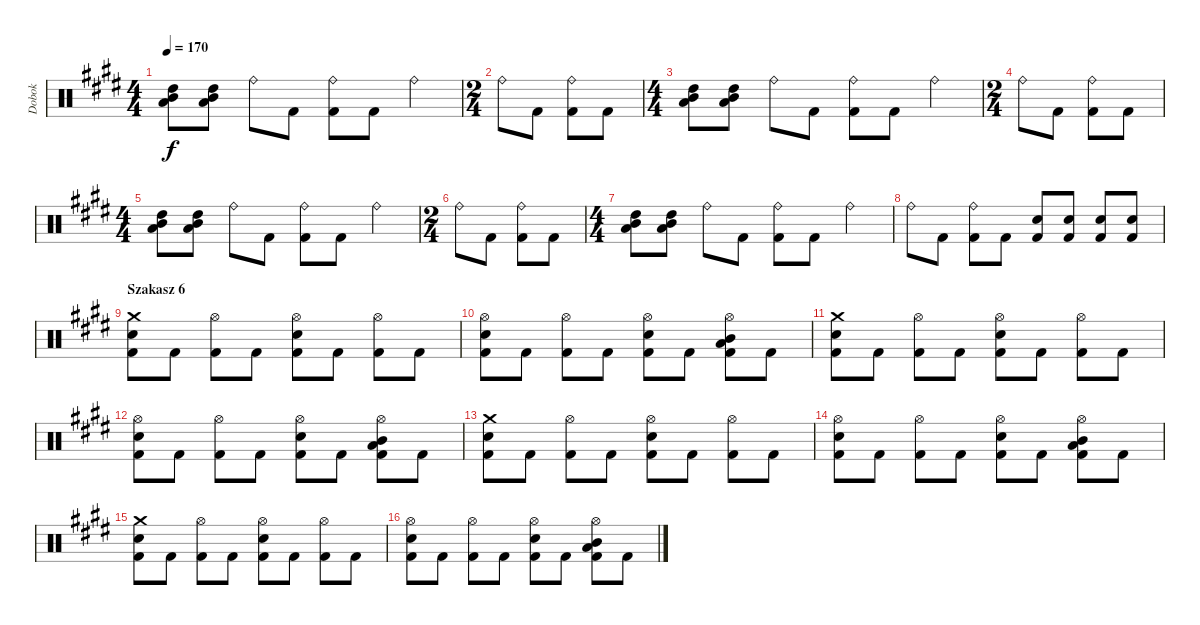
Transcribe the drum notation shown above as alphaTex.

\track ("Dobok" "Dobok") {instrument percussion}
\staff {score}
\articulation defaults
\ts (4 4)
\tempo 170
\clef neutral
\ks c#minor
("High Tom (hit)" "Mid Tom (hit)" "Low Tom (hit)").8{dy f} ("High Tom (hit)" "Mid Tom (hit)" "Low Tom (hit)").8 "Ride (bell)".8 "Kick (hit) 2".8 ("Ride (bell)" "Kick (hit) 2").8 "Kick (hit) 2".8 "Ride (bell)".4 |
\ts (2 4)
"Ride (bell)".8 "Kick (hit) 2".8 ("Ride (bell)" "Kick (hit) 2").8 "Kick (hit) 2".8 |
\ts (4 4)
("High Tom (hit)" "Mid Tom (hit)" "Low Tom (hit)").8 ("High Tom (hit)" "Mid Tom (hit)" "Low Tom (hit)").8 "Ride (bell)".8 "Kick (hit) 2".8 ("Ride (bell)" "Kick (hit) 2").8 "Kick (hit) 2".8 "Ride (bell)".4 |
\ts (2 4)
"Ride (bell)".8 "Kick (hit) 2".8 ("Ride (bell)" "Kick (hit) 2").8 "Kick (hit) 2".8 |
\ts (4 4)
("High Tom (hit)" "Mid Tom (hit)" "Low Tom (hit)").8 ("High Tom (hit)" "Mid Tom (hit)" "Low Tom (hit)").8 "Ride (bell)".8 "Kick (hit) 2".8 ("Ride (bell)" "Kick (hit) 2").8 "Kick (hit) 2".8 "Ride (bell)".4 |
\ts (2 4)
"Ride (bell)".8 "Kick (hit) 2".8 ("Ride (bell)" "Kick (hit) 2").8 "Kick (hit) 2".8 |
\ts (4 4)
("High Tom (hit)" "Mid Tom (hit)" "Low Tom (hit)").8 ("High Tom (hit)" "Mid Tom (hit)" "Low Tom (hit)").8 "Ride (bell)".8 "Kick (hit) 2".8 ("Ride (bell)" "Kick (hit) 2").8 "Kick (hit) 2".8 "Ride (bell)".4 |
"Ride (bell)".8 "Kick (hit) 2".8 ("Ride (bell)" "Kick (hit) 2").8 "Kick (hit) 2".8 ("Snare (hit) 2" "Kick (hit) 2").8 ("Snare (hit) 2" "Kick (hit) 2").8 ("Snare (hit) 2" "Kick (hit) 2").8 ("Snare (hit) 2" "Kick (hit) 2").8 |
\section ("" "Szakasz 6")
("Crash medium (hit)" "Snare (hit) 2" "Kick (hit) 2").8 "Kick (hit) 2".8 ("Hi-Hat (open)" "Kick (hit) 2").8 "Kick (hit) 2".8 ("Hi-Hat (open)" "Snare (hit) 2" "Kick (hit) 2").8 "Kick (hit) 2".8 ("Hi-Hat (open)" "Kick (hit) 2").8 "Kick (hit) 2".8 |
("Hi-Hat (open)" "Snare (hit) 2" "Kick (hit) 2").8 "Kick (hit) 2".8 ("Hi-Hat (open)" "Kick (hit) 2").8 "Kick (hit) 2".8 ("Hi-Hat (open)" "Snare (hit) 2" "Kick (hit) 2").8 "Kick (hit) 2".8 ("Hi-Hat (open)" "Low Tom (hit)" "Mid Tom (hit)" "Kick (hit) 2").8 "Kick (hit) 2".8 |
("Crash medium (hit)" "Snare (hit) 2" "Kick (hit) 2").8 "Kick (hit) 2".8 ("Hi-Hat (open)" "Kick (hit) 2").8 "Kick (hit) 2".8 ("Hi-Hat (open)" "Snare (hit) 2" "Kick (hit) 2").8 "Kick (hit) 2".8 ("Hi-Hat (open)" "Kick (hit) 2").8 "Kick (hit) 2".8 |
("Hi-Hat (open)" "Snare (hit) 2" "Kick (hit) 2").8 "Kick (hit) 2".8 ("Hi-Hat (open)" "Kick (hit) 2").8 "Kick (hit) 2".8 ("Hi-Hat (open)" "Snare (hit) 2" "Kick (hit) 2").8 "Kick (hit) 2".8 ("Hi-Hat (open)" "Low Tom (hit)" "Mid Tom (hit)" "Kick (hit) 2").8 "Kick (hit) 2".8 |
("Crash medium (hit)" "Snare (hit) 2" "Kick (hit) 2").8 "Kick (hit) 2".8 ("Hi-Hat (open)" "Kick (hit) 2").8 "Kick (hit) 2".8 ("Hi-Hat (open)" "Snare (hit) 2" "Kick (hit) 2").8 "Kick (hit) 2".8 ("Hi-Hat (open)" "Kick (hit) 2").8 "Kick (hit) 2".8 |
("Hi-Hat (open)" "Snare (hit) 2" "Kick (hit) 2").8 "Kick (hit) 2".8 ("Hi-Hat (open)" "Kick (hit) 2").8 "Kick (hit) 2".8 ("Hi-Hat (open)" "Snare (hit) 2" "Kick (hit) 2").8 "Kick (hit) 2".8 ("Hi-Hat (open)" "Low Tom (hit)" "Mid Tom (hit)" "Kick (hit) 2").8 "Kick (hit) 2".8 |
("Crash medium (hit)" "Snare (hit) 2" "Kick (hit) 2").8 "Kick (hit) 2".8 ("Hi-Hat (open)" "Kick (hit) 2").8 "Kick (hit) 2".8 ("Hi-Hat (open)" "Snare (hit) 2" "Kick (hit) 2").8 "Kick (hit) 2".8 ("Hi-Hat (open)" "Kick (hit) 2").8 "Kick (hit) 2".8 |
("Hi-Hat (open)" "Snare (hit) 2" "Kick (hit) 2").8 "Kick (hit) 2".8 ("Hi-Hat (open)" "Kick (hit) 2").8 "Kick (hit) 2".8 ("Hi-Hat (open)" "Snare (hit) 2" "Kick (hit) 2").8 "Kick (hit) 2".8 ("Hi-Hat (open)" "Low Tom (hit)" "Mid Tom (hit)" "Kick (hit) 2").8 "Kick (hit) 2".8
